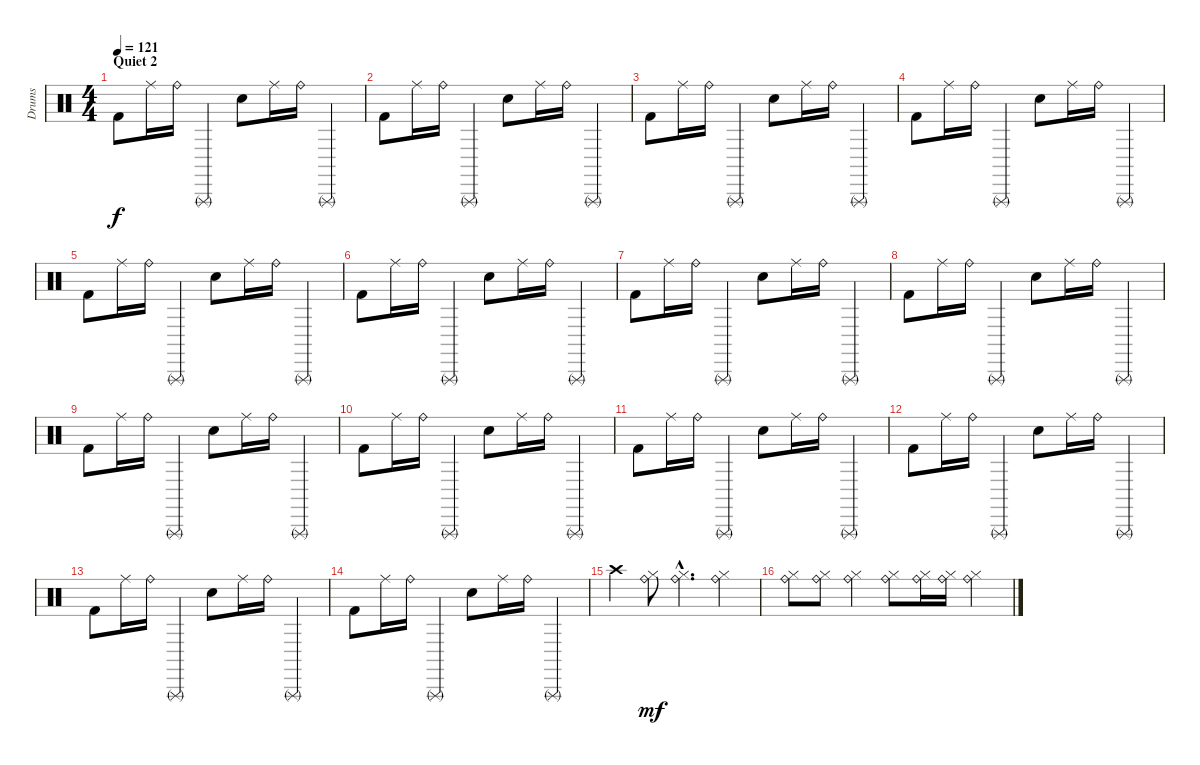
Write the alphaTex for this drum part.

\track ("Drums" "Drums") {instrument percussion}
\staff {score}
\articulation defaults
\ts (4 4)
\section ("" "Quiet 2")
\tempo 121
\clef neutral
\ks c "Kick (hit) 2".8{dy f} "Ride (middle)".16 "Ride (bell)".16 "Triangle (rnute)".4 "Snare (hit) 2".8 "Ride (middle)".16 "Ride (bell)".16 "Triangle (rnute)".4
|
"Kick (hit) 2".8 "Ride (middle)".16 "Ride (bell)".16 "Triangle (rnute)".4 "Snare (hit) 2".8 "Ride (middle)".16 "Ride (bell)".16 "Triangle (rnute)".4 |
"Kick (hit) 2".8 "Ride (middle)".16 "Ride (bell)".16 "Triangle (rnute)".4 "Snare (hit) 2".8 "Ride (middle)".16 "Ride (bell)".16 "Triangle (rnute)".4 |
"Kick (hit) 2".8 "Ride (middle)".16 "Ride (bell)".16 "Triangle (rnute)".4 "Snare (hit) 2".8 "Ride (middle)".16 "Ride (bell)".16 "Triangle (rnute)".4 |
"Kick (hit) 2".8 "Ride (middle)".16 "Ride (bell)".16 "Triangle (rnute)".4 "Snare (hit) 2".8 "Ride (middle)".16 "Ride (bell)".16 "Triangle (rnute)".4 |
"Kick (hit) 2".8 "Ride (middle)".16 "Ride (bell)".16 "Triangle (rnute)".4 "Snare (hit) 2".8 "Ride (middle)".16 "Ride (bell)".16 "Triangle (rnute)".4 |
"Kick (hit) 2".8 "Ride (middle)".16 "Ride (bell)".16 "Triangle (rnute)".4 "Snare (hit) 2".8 "Ride (middle)".16 "Ride (bell)".16 "Triangle (rnute)".4 |
"Kick (hit) 2".8 "Ride (middle)".16 "Ride (bell)".16 "Triangle (rnute)".4 "Snare (hit) 2".8 "Ride (middle)".16 "Ride (bell)".16 "Triangle (rnute)".4 |
"Kick (hit) 2".8 "Ride (middle)".16 "Ride (bell)".16 "Triangle (rnute)".4 "Snare (hit) 2".8 "Ride (middle)".16 "Ride (bell)".16 "Triangle (rnute)".4 |
"Kick (hit) 2".8 "Ride (middle)".16 "Ride (bell)".16 "Triangle (rnute)".4 "Snare (hit) 2".8 "Ride (middle)".16 "Ride (bell)".16 "Triangle (rnute)".4 |
"Kick (hit) 2".8 "Ride (middle)".16 "Ride (bell)".16 "Triangle (rnute)".4 "Snare (hit) 2".8 "Ride (middle)".16 "Ride (bell)".16 "Triangle (rnute)".4 |
"Kick (hit) 2".8 "Ride (middle)".16 "Ride (bell)".16 "Triangle (rnute)".4 "Snare (hit) 2".8 "Ride (middle)".16 "Ride (bell)".16 "Triangle (rnute)".4 |
"Kick (hit) 2".8 "Ride (middle)".16 "Ride (bell)".16 "Triangle (rnute)".4 "Snare (hit) 2".8 "Ride (middle)".16 "Ride (bell)".16 "Triangle (rnute)".4 |
"Kick (hit) 2".8 "Ride (middle)".16 "Ride (bell)".16 "Triangle (rnute)".4 "Snare (hit) 2".8 "Ride (middle)".16 "Ride (bell)".16 "Triangle (rnute)".4 |
"Crash high (hit)".4 ("Hi-Hat (closed)" "Ride (bell)").8{dy mf} ("Hi-Hat (closed)"{hac} "Ride (bell)"{hac}).4{d} ("Hi-Hat (closed)" "Ride (bell)").4 |
("Hi-Hat (closed)" "Ride (bell)").8 ("Hi-Hat (closed)" "Ride (bell)").8 ("Hi-Hat (closed)" "Ride (bell)").4 ("Hi-Hat (closed)" "Ride (bell)").8 ("Hi-Hat (closed)" "Ride (bell)").16 ("Hi-Hat (closed)" "Ride (bell)").16 ("Hi-Hat (closed)" "Ride (bell)").4
